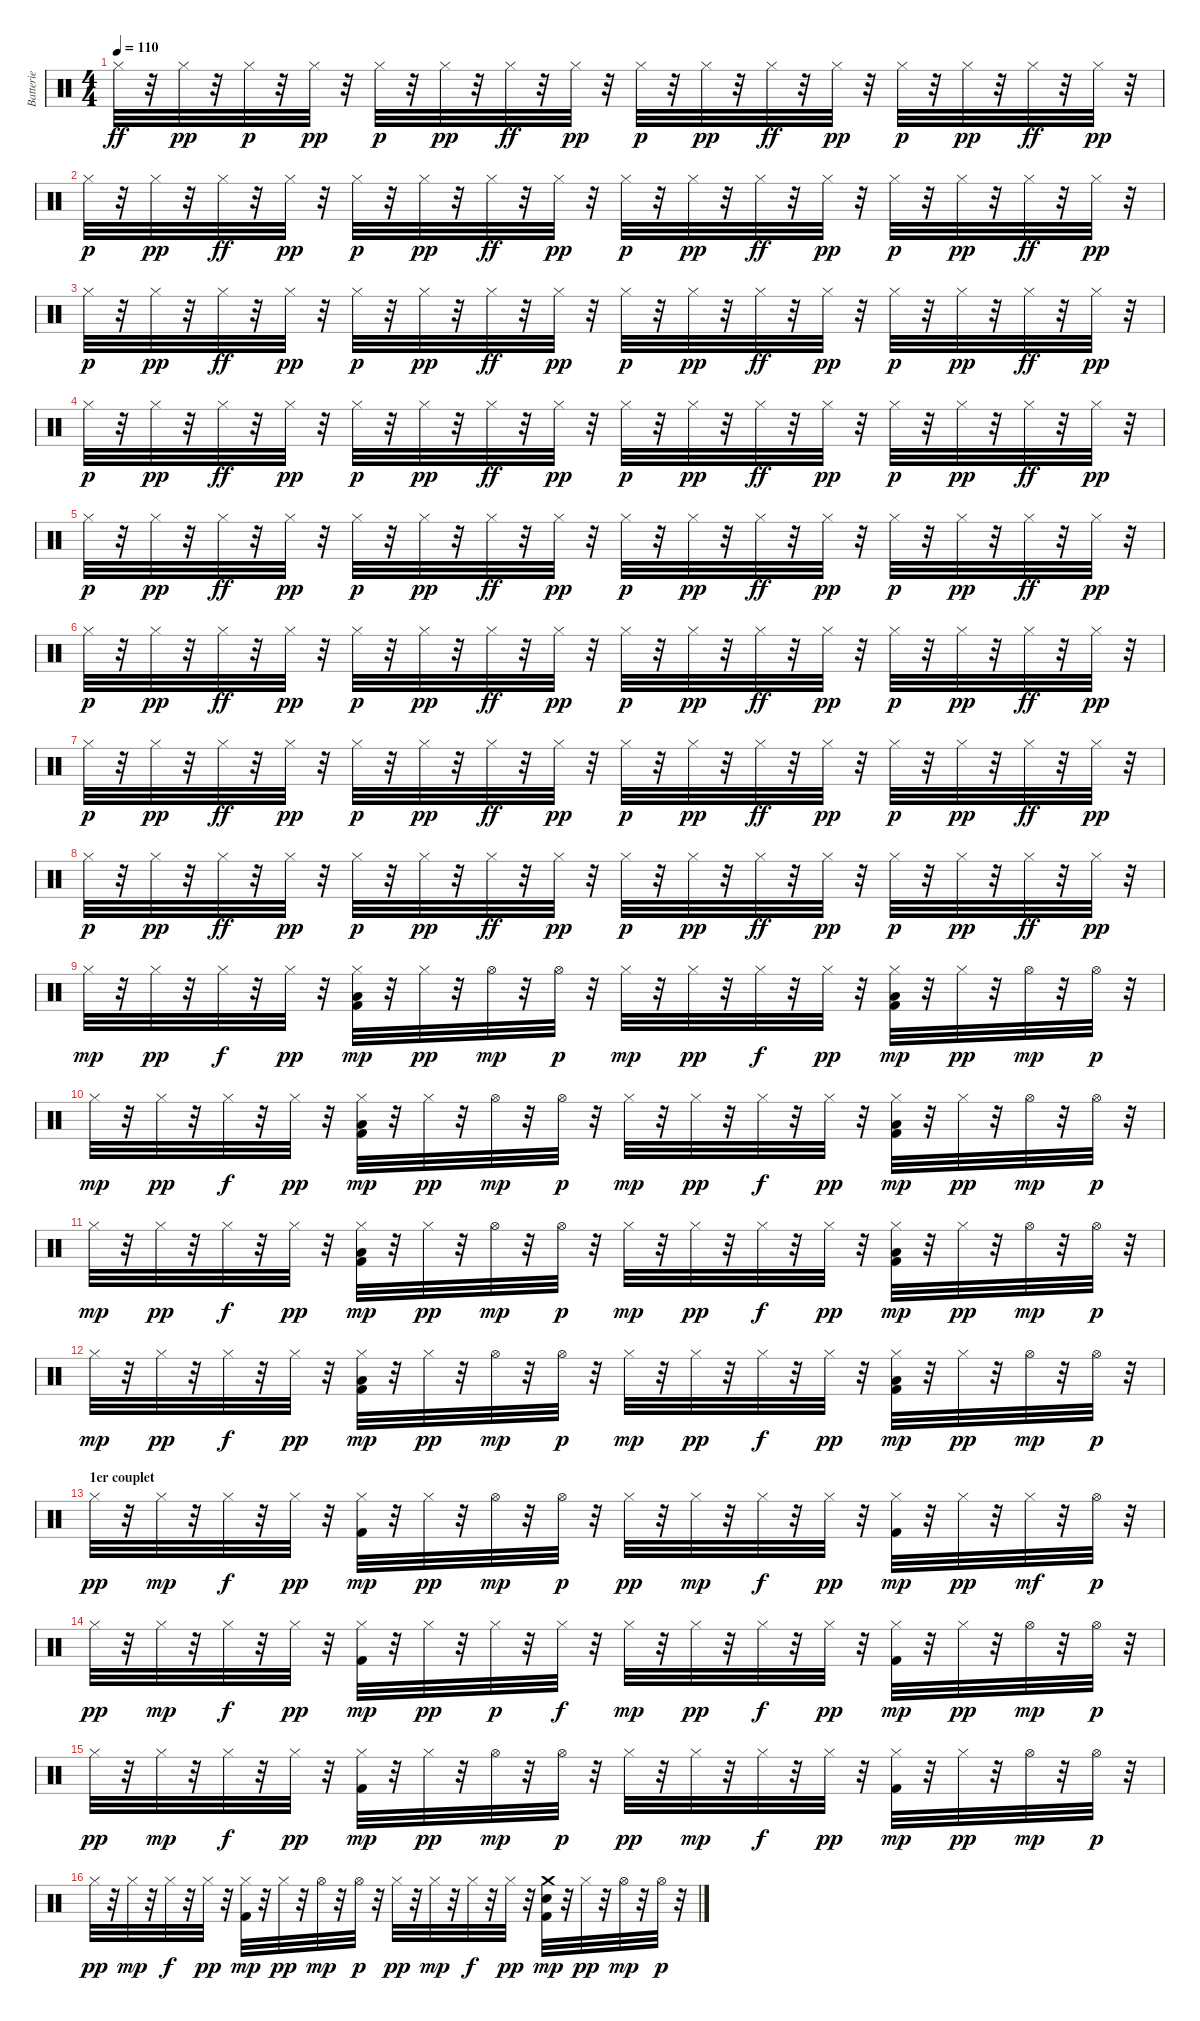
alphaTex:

\track ("Batterie" "Batterie") {instrument percussion}
\staff {score}
\articulation defaults
\ts (4 4)
\tempo 110
\clef neutral
\ks c "Hi-Hat (closed)".32{dy ff}
r.32 "Hi-Hat (closed)".32{dy pp} r.32 "Hi-Hat (closed)".32{dy p} r.32 "Hi-Hat (closed)".32{dy pp} r.32 "Hi-Hat (closed)".32{dy p} r.32 "Hi-Hat (closed)".32{dy pp} r.32 "Hi-Hat (closed)".32{dy ff} r.32 "Hi-Hat (closed)".32{dy pp} r.32 "Hi-Hat (closed)".32{dy p} r.32 "Hi-Hat (closed)".32{dy pp} r.32 "Hi-Hat (closed)".32{dy ff} r.32 "Hi-Hat (closed)".32{dy pp} r.32 "Hi-Hat (closed)".32{dy p} r.32 "Hi-Hat (closed)".32{dy pp} r.32 "Hi-Hat (closed)".32{dy ff} r.32 "Hi-Hat (closed)".32{dy pp} r.32 |
"Hi-Hat (closed)".32{dy p} r.32 "Hi-Hat (closed)".32{dy pp} r.32 "Hi-Hat (closed)".32{dy ff} r.32 "Hi-Hat (closed)".32{dy pp} r.32 "Hi-Hat (closed)".32{dy p} r.32 "Hi-Hat (closed)".32{dy pp} r.32 "Hi-Hat (closed)".32{dy ff} r.32 "Hi-Hat (closed)".32{dy pp} r.32 "Hi-Hat (closed)".32{dy p} r.32 "Hi-Hat (closed)".32{dy pp} r.32 "Hi-Hat (closed)".32{dy ff} r.32 "Hi-Hat (closed)".32{dy pp} r.32 "Hi-Hat (closed)".32{dy p} r.32 "Hi-Hat (closed)".32{dy pp} r.32 "Hi-Hat (closed)".32{dy ff} r.32 "Hi-Hat (closed)".32{dy pp} r.32 |
"Hi-Hat (closed)".32{dy p} r.32 "Hi-Hat (closed)".32{dy pp} r.32 "Hi-Hat (closed)".32{dy ff} r.32 "Hi-Hat (closed)".32{dy pp} r.32 "Hi-Hat (closed)".32{dy p} r.32 "Hi-Hat (closed)".32{dy pp} r.32 "Hi-Hat (closed)".32{dy ff} r.32 "Hi-Hat (closed)".32{dy pp} r.32 "Hi-Hat (closed)".32{dy p} r.32 "Hi-Hat (closed)".32{dy pp} r.32 "Hi-Hat (closed)".32{dy ff} r.32 "Hi-Hat (closed)".32{dy pp} r.32 "Hi-Hat (closed)".32{dy p} r.32 "Hi-Hat (closed)".32{dy pp} r.32 "Hi-Hat (closed)".32{dy ff} r.32 "Hi-Hat (closed)".32{dy pp} r.32 |
"Hi-Hat (closed)".32{dy p} r.32 "Hi-Hat (closed)".32{dy pp} r.32 "Hi-Hat (closed)".32{dy ff} r.32 "Hi-Hat (closed)".32{dy pp} r.32 "Hi-Hat (closed)".32{dy p} r.32 "Hi-Hat (closed)".32{dy pp} r.32 "Hi-Hat (closed)".32{dy ff} r.32 "Hi-Hat (closed)".32{dy pp} r.32 "Hi-Hat (closed)".32{dy p} r.32 "Hi-Hat (closed)".32{dy pp} r.32 "Hi-Hat (closed)".32{dy ff} r.32 "Hi-Hat (closed)".32{dy pp} r.32 "Hi-Hat (closed)".32{dy p} r.32 "Hi-Hat (closed)".32{dy pp} r.32 "Hi-Hat (closed)".32{dy ff} r.32 "Hi-Hat (closed)".32{dy pp} r.32 |
"Hi-Hat (closed)".32{dy p} r.32 "Hi-Hat (closed)".32{dy pp} r.32 "Hi-Hat (closed)".32{dy ff} r.32 "Hi-Hat (closed)".32{dy pp} r.32 "Hi-Hat (closed)".32{dy p} r.32 "Hi-Hat (closed)".32{dy pp} r.32 "Hi-Hat (closed)".32{dy ff} r.32 "Hi-Hat (closed)".32{dy pp} r.32 "Hi-Hat (closed)".32{dy p} r.32 "Hi-Hat (closed)".32{dy pp} r.32 "Hi-Hat (closed)".32{dy ff} r.32 "Hi-Hat (closed)".32{dy pp} r.32 "Hi-Hat (closed)".32{dy p} r.32 "Hi-Hat (closed)".32{dy pp} r.32 "Hi-Hat (closed)".32{dy ff} r.32 "Hi-Hat (closed)".32{dy pp} r.32 |
"Hi-Hat (closed)".32{dy p} r.32 "Hi-Hat (closed)".32{dy pp} r.32 "Hi-Hat (closed)".32{dy ff} r.32 "Hi-Hat (closed)".32{dy pp} r.32 "Hi-Hat (closed)".32{dy p} r.32 "Hi-Hat (closed)".32{dy pp} r.32 "Hi-Hat (closed)".32{dy ff} r.32 "Hi-Hat (closed)".32{dy pp} r.32 "Hi-Hat (closed)".32{dy p} r.32 "Hi-Hat (closed)".32{dy pp} r.32 "Hi-Hat (closed)".32{dy ff} r.32 "Hi-Hat (closed)".32{dy pp} r.32 "Hi-Hat (closed)".32{dy p} r.32 "Hi-Hat (closed)".32{dy pp} r.32 "Hi-Hat (closed)".32{dy ff} r.32 "Hi-Hat (closed)".32{dy pp} r.32 |
"Hi-Hat (closed)".32{dy p} r.32 "Hi-Hat (closed)".32{dy pp} r.32 "Hi-Hat (closed)".32{dy ff} r.32 "Hi-Hat (closed)".32{dy pp} r.32 "Hi-Hat (closed)".32{dy p} r.32 "Hi-Hat (closed)".32{dy pp} r.32 "Hi-Hat (closed)".32{dy ff} r.32 "Hi-Hat (closed)".32{dy pp} r.32 "Hi-Hat (closed)".32{dy p} r.32 "Hi-Hat (closed)".32{dy pp} r.32 "Hi-Hat (closed)".32{dy ff} r.32 "Hi-Hat (closed)".32{dy pp} r.32 "Hi-Hat (closed)".32{dy p} r.32 "Hi-Hat (closed)".32{dy pp} r.32 "Hi-Hat (closed)".32{dy ff} r.32 "Hi-Hat (closed)".32{dy pp} r.32 |
"Hi-Hat (closed)".32{dy p} r.32 "Hi-Hat (closed)".32{dy pp} r.32 "Hi-Hat (closed)".32{dy ff} r.32 "Hi-Hat (closed)".32{dy pp} r.32 "Hi-Hat (closed)".32{dy p} r.32 "Hi-Hat (closed)".32{dy pp} r.32 "Hi-Hat (closed)".32{dy ff} r.32 "Hi-Hat (closed)".32{dy pp} r.32 "Hi-Hat (closed)".32{dy p} r.32 "Hi-Hat (closed)".32{dy pp} r.32 "Hi-Hat (closed)".32{dy ff} r.32 "Hi-Hat (closed)".32{dy pp} r.32 "Hi-Hat (closed)".32{dy p} r.32 "Hi-Hat (closed)".32{dy pp} r.32 "Hi-Hat (closed)".32{dy ff} r.32 "Hi-Hat (closed)".32{dy pp} r.32 |
"Hi-Hat (closed)".32{dy mp} r.32 "Hi-Hat (closed)".32{dy pp} r.32 "Hi-Hat (closed)".32{dy f} r.32 "Hi-Hat (closed)".32{dy pp} r.32 ("Kick (hit) 2" "Low Floor Tom (hit)" "Hi-Hat (closed)").32{dy mp} r.32 "Hi-Hat (closed)".32{dy pp} r.32 "Hi-Hat (open)".32{dy mp} r.32 "Hi-Hat (open)".32{dy p} r.32 "Hi-Hat (closed)".32{dy mp} r.32 "Hi-Hat (closed)".32{dy pp} r.32 "Hi-Hat (closed)".32{dy f} r.32 "Hi-Hat (closed)".32{dy pp} r.32 ("Kick (hit) 2" "Low Floor Tom (hit)" "Hi-Hat (closed)").32{dy mp} r.32 "Hi-Hat (closed)".32{dy pp} r.32 "Hi-Hat (open)".32{dy mp} r.32 "Hi-Hat (open)".32{dy p} r.32 |
"Hi-Hat (closed)".32{dy mp} r.32 "Hi-Hat (closed)".32{dy pp} r.32 "Hi-Hat (closed)".32{dy f} r.32 "Hi-Hat (closed)".32{dy pp} r.32 ("Kick (hit) 2" "Low Floor Tom (hit)" "Hi-Hat (closed)").32{dy mp} r.32 "Hi-Hat (closed)".32{dy pp} r.32 "Hi-Hat (open)".32{dy mp} r.32 "Hi-Hat (open)".32{dy p} r.32 "Hi-Hat (closed)".32{dy mp} r.32 "Hi-Hat (closed)".32{dy pp} r.32 "Hi-Hat (closed)".32{dy f} r.32 "Hi-Hat (closed)".32{dy pp} r.32 ("Kick (hit) 2" "Low Floor Tom (hit)" "Hi-Hat (closed)").32{dy mp} r.32 "Hi-Hat (closed)".32{dy pp} r.32 "Hi-Hat (open)".32{dy mp} r.32 "Hi-Hat (open)".32{dy p} r.32 |
"Hi-Hat (closed)".32{dy mp} r.32 "Hi-Hat (closed)".32{dy pp} r.32 "Hi-Hat (closed)".32{dy f} r.32 "Hi-Hat (closed)".32{dy pp} r.32 ("Kick (hit) 2" "Low Floor Tom (hit)" "Hi-Hat (closed)").32{dy mp} r.32 "Hi-Hat (closed)".32{dy pp} r.32 "Hi-Hat (open)".32{dy mp} r.32 "Hi-Hat (open)".32{dy p} r.32 "Hi-Hat (closed)".32{dy mp} r.32 "Hi-Hat (closed)".32{dy pp} r.32 "Hi-Hat (closed)".32{dy f} r.32 "Hi-Hat (closed)".32{dy pp} r.32 ("Kick (hit) 2" "Low Floor Tom (hit)" "Hi-Hat (closed)").32{dy mp} r.32 "Hi-Hat (closed)".32{dy pp} r.32 "Hi-Hat (open)".32{dy mp} r.32 "Hi-Hat (open)".32{dy p} r.32 |
"Hi-Hat (closed)".32{dy mp} r.32 "Hi-Hat (closed)".32{dy pp} r.32 "Hi-Hat (closed)".32{dy f} r.32 "Hi-Hat (closed)".32{dy pp} r.32 ("Kick (hit) 2" "Low Floor Tom (hit)" "Hi-Hat (closed)").32{dy mp} r.32 "Hi-Hat (closed)".32{dy pp} r.32 "Hi-Hat (open)".32{dy mp} r.32 "Hi-Hat (open)".32{dy p} r.32 "Hi-Hat (closed)".32{dy mp} r.32 "Hi-Hat (closed)".32{dy pp} r.32 "Hi-Hat (closed)".32{dy f} r.32 "Hi-Hat (closed)".32{dy pp} r.32 ("Kick (hit) 2" "Low Floor Tom (hit)" "Hi-Hat (closed)").32{dy mp} r.32 "Hi-Hat (closed)".32{dy pp} r.32 "Hi-Hat (open)".32{dy mp} r.32 "Hi-Hat (open)".32{dy p} r.32 |
\section ("" "1er couplet")
"Hi-Hat (closed)".32{dy pp} r.32 "Hi-Hat (closed)".32{dy mp} r.32 "Hi-Hat (closed)".32{dy f} r.32 "Hi-Hat (closed)".32{dy pp} r.32 ("Kick (hit) 2" "Hi-Hat (closed)").32{dy mp} r.32 "Hi-Hat (closed)".32{dy pp} r.32 "Hi-Hat (open)".32{dy mp} r.32 "Hi-Hat (open)".32{dy p} r.32 "Hi-Hat (closed)".32{dy pp} r.32 "Hi-Hat (closed)".32{dy mp} r.32 "Hi-Hat (closed)".32{dy f} r.32 "Hi-Hat (closed)".32{dy pp} r.32 ("Kick (hit) 2" "Hi-Hat (closed)").32{dy mp} r.32 "Hi-Hat (closed)".32{dy pp} r.32 "Hi-Hat (closed)".32{dy mf} r.32 "Hi-Hat (open)".32{dy p} r.32 |
"Hi-Hat (closed)".32{dy pp} r.32 "Hi-Hat (closed)".32{dy mp} r.32 "Hi-Hat (closed)".32{dy f} r.32 "Hi-Hat (closed)".32{dy pp} r.32 ("Kick (hit) 2" "Hi-Hat (closed)").32{dy mp} r.32 "Hi-Hat (closed)".32{dy pp} r.32 "Hi-Hat (closed)".32{dy p} r.32 "Hi-Hat (closed)".32{dy f} r.32 "Hi-Hat (closed)".32{dy mp} r.32 "Hi-Hat (closed)".32{dy pp} r.32 "Hi-Hat (closed)".32{dy f} r.32 "Hi-Hat (closed)".32{dy pp} r.32 ("Kick (hit) 2" "Hi-Hat (closed)").32{dy mp} r.32 "Hi-Hat (closed)".32{dy pp} r.32 "Hi-Hat (open)".32{dy mp} r.32 "Hi-Hat (open)".32{dy p} r.32 |
"Hi-Hat (closed)".32{dy pp} r.32 "Hi-Hat (closed)".32{dy mp} r.32 "Hi-Hat (closed)".32{dy f} r.32 "Hi-Hat (closed)".32{dy pp} r.32 ("Kick (hit) 2" "Hi-Hat (closed)").32{dy mp} r.32 "Hi-Hat (closed)".32{dy pp} r.32 "Hi-Hat (open)".32{dy mp} r.32 "Hi-Hat (open)".32{dy p} r.32 "Hi-Hat (closed)".32{dy pp} r.32 "Hi-Hat (closed)".32{dy mp} r.32 "Hi-Hat (closed)".32{dy f} r.32 "Hi-Hat (closed)".32{dy pp} r.32 ("Kick (hit) 2" "Hi-Hat (closed)").32{dy mp} r.32 "Hi-Hat (closed)".32{dy pp} r.32 "Hi-Hat (open)".32{dy mp} r.32 "Hi-Hat (open)".32{dy p} r.32 |
"Hi-Hat (closed)".32{dy pp} r.32 "Hi-Hat (closed)".32{dy mp} r.32 "Hi-Hat (closed)".32{dy f} r.32 "Hi-Hat (closed)".32{dy pp} r.32 ("Kick (hit) 2" "Hi-Hat (closed)").32{dy mp} r.32 "Hi-Hat (closed)".32{dy pp} r.32 "Hi-Hat (open)".32{dy mp} r.32 "Hi-Hat (open)".32{dy p} r.32 "Hi-Hat (closed)".32{dy pp} r.32 "Hi-Hat (closed)".32{dy mp} r.32 "Hi-Hat (closed)".32{dy f} r.32 "Hi-Hat (closed)".32{dy pp} r.32 ("Kick (hit) 2" "Electric Snare (hit)" "Crash medium (hit)").32{dy mp} r.32 "Hi-Hat (closed)".32{dy pp} r.32 "Hi-Hat (open)".32{dy mp} r.32 "Hi-Hat (open)".32{dy p} r.32
